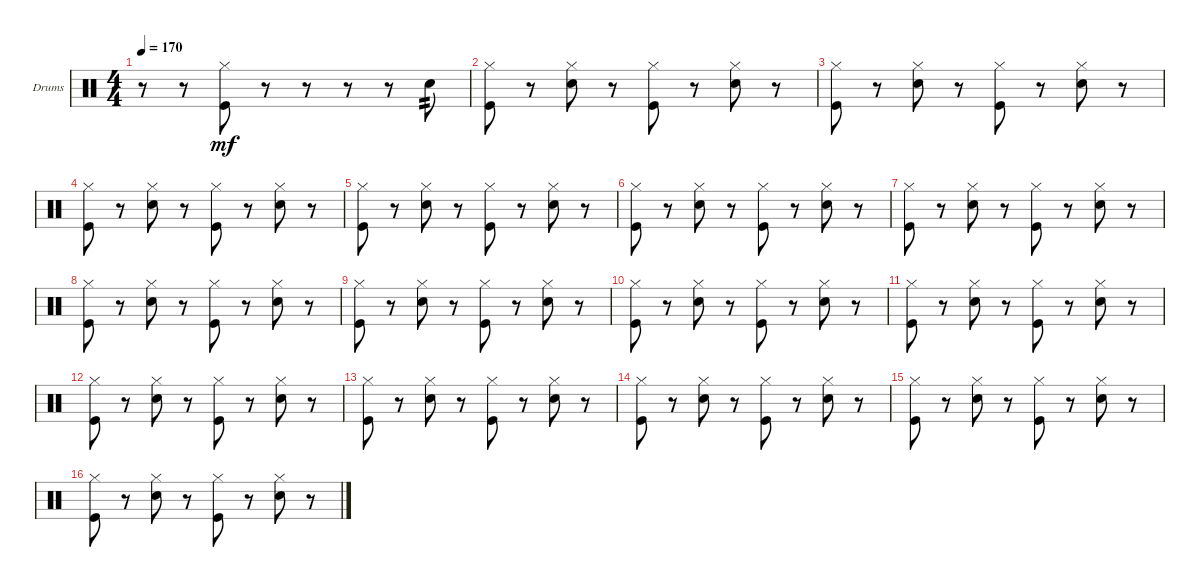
\defaultSystemsLayout 4
\bracketExtendMode groupsimilarinstruments
\firstSystemTrackNameOrientation horizontal
\otherSystemsTrackNameOrientation horizontal
\track ("Drumkit" "Drums") {instrument percussion}
\staff {score}
\articulation defaults
\ts (4 4)
\tempo 170
\clef neutral
\ks c
r.8{dy mf} r.8 ("Kick (hit)" "Hi-Hat (closed)").8 r.8 r.8 r.8 r.8 "Snare (hit) 2".8{tp 2} |
("Kick (hit)" "Hi-Hat (closed)").8 r.8 ("Snare (hit) 2" "Hi-Hat (closed)").8 r.8 ("Kick (hit)" "Hi-Hat (closed)").8 r.8 ("Snare (hit) 2" "Hi-Hat (closed)").8 r.8 |
("Kick (hit)" "Hi-Hat (closed)").8 r.8 ("Snare (hit) 2" "Hi-Hat (closed)").8 r.8 ("Kick (hit)" "Hi-Hat (closed)").8 r.8 ("Snare (hit) 2" "Hi-Hat (closed)").8 r.8 |
("Kick (hit)" "Hi-Hat (closed)").8 r.8 ("Snare (hit) 2" "Hi-Hat (closed)").8 r.8 ("Kick (hit)" "Hi-Hat (closed)").8 r.8 ("Snare (hit) 2" "Hi-Hat (closed)").8 r.8 |
("Kick (hit)" "Hi-Hat (closed)").8 r.8 ("Snare (hit) 2" "Hi-Hat (closed)").8 r.8 ("Kick (hit)" "Hi-Hat (closed)").8 r.8 ("Snare (hit) 2" "Hi-Hat (closed)").8 r.8 |
("Kick (hit)" "Hi-Hat (closed)").8 r.8 ("Snare (hit) 2" "Hi-Hat (closed)").8 r.8 ("Kick (hit)" "Hi-Hat (closed)").8 r.8 ("Snare (hit) 2" "Hi-Hat (closed)").8 r.8 |
("Kick (hit)" "Hi-Hat (closed)").8 r.8 ("Snare (hit) 2" "Hi-Hat (closed)").8 r.8 ("Kick (hit)" "Hi-Hat (closed)").8 r.8 ("Snare (hit) 2" "Hi-Hat (closed)").8 r.8 |
("Kick (hit)" "Hi-Hat (closed)").8 r.8 ("Snare (hit) 2" "Hi-Hat (closed)").8 r.8 ("Kick (hit)" "Hi-Hat (closed)").8 r.8 ("Snare (hit) 2" "Hi-Hat (closed)").8 r.8 |
("Kick (hit)" "Hi-Hat (closed)").8 r.8 ("Snare (hit) 2" "Hi-Hat (closed)").8 r.8 ("Kick (hit)" "Hi-Hat (closed)").8 r.8 ("Snare (hit) 2" "Hi-Hat (closed)").8 r.8 |
("Kick (hit)" "Hi-Hat (closed)").8 r.8 ("Snare (hit) 2" "Hi-Hat (closed)").8 r.8 ("Kick (hit)" "Hi-Hat (closed)").8 r.8 ("Snare (hit) 2" "Hi-Hat (closed)").8 r.8 |
("Kick (hit)" "Hi-Hat (closed)").8 r.8 ("Snare (hit) 2" "Hi-Hat (closed)").8 r.8 ("Kick (hit)" "Hi-Hat (closed)").8 r.8 ("Snare (hit) 2" "Hi-Hat (closed)").8 r.8 |
("Kick (hit)" "Hi-Hat (closed)").8 r.8 ("Snare (hit) 2" "Hi-Hat (closed)").8 r.8 ("Kick (hit)" "Hi-Hat (closed)").8 r.8 ("Snare (hit) 2" "Hi-Hat (closed)").8 r.8 |
("Kick (hit)" "Hi-Hat (closed)").8 r.8 ("Snare (hit) 2" "Hi-Hat (closed)").8 r.8 ("Kick (hit)" "Hi-Hat (closed)").8 r.8 ("Snare (hit) 2" "Hi-Hat (closed)").8 r.8 |
("Kick (hit)" "Hi-Hat (closed)").8 r.8 ("Snare (hit) 2" "Hi-Hat (closed)").8 r.8 ("Kick (hit)" "Hi-Hat (closed)").8 r.8 ("Snare (hit) 2" "Hi-Hat (closed)").8 r.8 |
("Kick (hit)" "Hi-Hat (closed)").8 r.8 ("Snare (hit) 2" "Hi-Hat (closed)").8 r.8 ("Kick (hit)" "Hi-Hat (closed)").8 r.8 ("Snare (hit) 2" "Hi-Hat (closed)").8 r.8 |
("Kick (hit)" "Hi-Hat (closed)").8 r.8 ("Snare (hit) 2" "Hi-Hat (closed)").8 r.8 ("Kick (hit)" "Hi-Hat (closed)").8 r.8 ("Snare (hit) 2" "Hi-Hat (closed)").8 r.8
